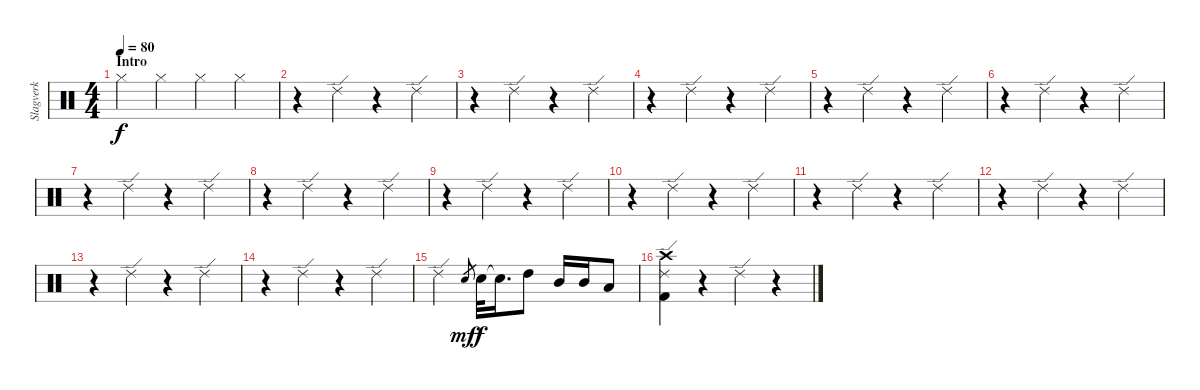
\track ("Slagverk" "Slagverk") {instrument percussion}
\staff {score}
\articulation defaults
\ts (4 4)
\section ("" "Intro")
\tempo 80
\clef neutral
\ks c "Hi-Hat (closed)".4{dy f} "Hi-Hat (closed)".4 "Hi-Hat (closed)".4 "Hi-Hat (closed)".4
|
r.4 "Ride (edge) 2".4 r.4 "Ride (edge) 2".4 |
r.4 "Ride (edge) 2".4 r.4 "Ride (edge) 2".4 |
r.4 "Ride (edge) 2".4 r.4 "Ride (edge) 2".4 |
r.4 "Ride (edge) 2".4 r.4 "Ride (edge) 2".4 |
r.4 "Ride (edge) 2".4 r.4 "Ride (edge) 2".4 |
r.4 "Ride (edge) 2".4 r.4 "Ride (edge) 2".4 |
r.4 "Ride (edge) 2".4 r.4 "Ride (edge) 2".4 |
r.4 "Ride (edge) 2".4 r.4 "Ride (edge) 2".4 |
r.4 "Ride (edge) 2".4 r.4 "Ride (edge) 2".4 |
r.4 "Ride (edge) 2".4 r.4 "Ride (edge) 2".4 |
r.4 "Ride (edge) 2".4 r.4 "Ride (edge) 2".4 |
r.4 "Ride (edge) 2".4 r.4 "Ride (edge) 2".4 |
r.4 "Ride (edge) 2".4 r.4 "Ride (edge) 2".4 |
"Ride (edge) 2".2 "Electric Snare (hit)".8{gr dy mf} "Electric Snare (hit)".32{dy f} "Snare (hit)"{t}.16{d} "High Tom (hit)".8 "Mid Tom (hit)".16 "Mid Tom (hit)".16 "Low Tom (hit)".8 |
("Ride (edge) 2" "Kick (hit) 2" "Crash high (hit)").4 r.4 "Ride (edge) 2".4 r.4
